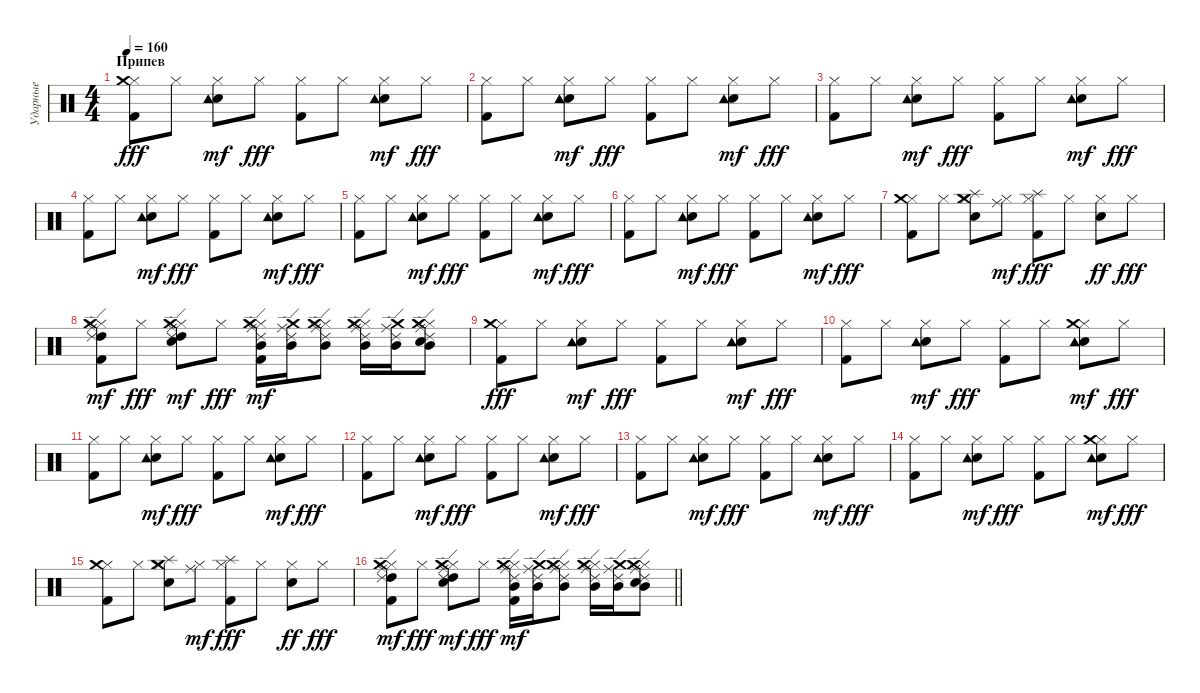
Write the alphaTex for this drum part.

\track ("Ударные" "Ударные") {instrument percussion}
\staff {score}
\articulation defaults
\ts (4 4)
\section ("" "Припев")
\tempo 160
\clef neutral
\ks c
("Hi-Hat (closed)" "Kick (hit) 2" "Crash medium (hit)").8{dy fff} "Hi-Hat (closed)".8 ("Hi-Hat (closed)" "Snare (hit) 2" "Tambourine (hit)").8{dy mf} "Hi-Hat (closed)".8{dy fff} ("Hi-Hat (closed)" "Kick (hit) 2").8 "Hi-Hat (closed)".8 ("Hi-Hat (closed)" "Snare (hit) 2" "Tambourine (hit)").8{dy mf} "Hi-Hat (closed)".8{dy fff} |
("Hi-Hat (closed)" "Kick (hit) 2").8 "Hi-Hat (closed)".8 ("Hi-Hat (closed)" "Snare (hit) 2" "Tambourine (hit)").8{dy mf} "Hi-Hat (closed)".8{dy fff} ("Hi-Hat (closed)" "Kick (hit) 2").8 "Hi-Hat (closed)".8 ("Hi-Hat (closed)" "Snare (hit) 2" "Tambourine (hit)").8{dy mf} "Hi-Hat (closed)".8{dy fff} |
("Hi-Hat (closed)" "Kick (hit) 2").8 "Hi-Hat (closed)".8 ("Hi-Hat (closed)" "Snare (hit) 2" "Tambourine (hit)").8{dy mf} "Hi-Hat (closed)".8{dy fff} ("Hi-Hat (closed)" "Kick (hit) 2").8 "Hi-Hat (closed)".8 ("Hi-Hat (closed)" "Snare (hit) 2" "Tambourine (hit)").8{dy mf} "Hi-Hat (closed)".8{dy fff} |
("Hi-Hat (closed)" "Kick (hit) 2").8 "Hi-Hat (closed)".8 ("Hi-Hat (closed)" "Snare (hit) 2" "Tambourine (hit)").8{dy mf} "Hi-Hat (closed)".8{dy fff} ("Hi-Hat (closed)" "Kick (hit) 2").8 "Hi-Hat (closed)".8 ("Hi-Hat (closed)" "Snare (hit) 2" "Tambourine (hit)").8{dy mf} "Hi-Hat (closed)".8{dy fff} |
("Hi-Hat (closed)" "Kick (hit) 2").8 "Hi-Hat (closed)".8 ("Hi-Hat (closed)" "Snare (hit) 2" "Tambourine (hit)").8{dy mf} "Hi-Hat (closed)".8{dy fff} ("Hi-Hat (closed)" "Kick (hit) 2").8 "Hi-Hat (closed)".8 ("Hi-Hat (closed)" "Snare (hit) 2" "Tambourine (hit)").8{dy mf} "Hi-Hat (closed)".8{dy fff} |
("Hi-Hat (closed)" "Kick (hit) 2").8 "Hi-Hat (closed)".8 ("Hi-Hat (closed)" "Snare (hit) 2" "Tambourine (hit)").8{dy mf} "Hi-Hat (closed)".8{dy fff} ("Hi-Hat (closed)" "Kick (hit) 2").8 "Hi-Hat (closed)".8 ("Hi-Hat (closed)" "Snare (hit) 2" "Tambourine (hit)").8{dy mf} "Hi-Hat (closed)".8{dy fff} |
("Hi-Hat (closed)" "Kick (hit) 2" "Crash medium (hit)").8 "Hi-Hat (closed)".8 ("Hi-Hat (closed)" "Snare (hit) 2" "Crash medium (hit)" "Splash (hit)").8 ("Hi-Hat (closed)" "Ride (middle)").8{dy mf} ("Hi-Hat (closed)" "Kick (hit) 2" "Splash (hit)").8{dy fff} "Hi-Hat (closed)".8 ("Hi-Hat (closed)" "Snare (hit) 2").8{dy ff} "Hi-Hat (closed)".8{dy fff} |
("Hi-Hat (closed)" "Kick (hit) 2" "High Tom (hit)" "Ride (middle)" "Ride (edge) 2" "Crash medium (hit)").8{dy mf} "Hi-Hat (closed)".8{dy fff} ("Hi-Hat (closed)" "Snare (hit) 2" "High Tom (hit)" "Ride (middle)" "Ride (edge) 2" "Crash medium (hit)").8{dy mf} "Hi-Hat (closed)".8{dy fff} ("Hi-Hat (closed)" "Kick (hit) 2" "Mid Tom (hit)" "Ride (middle)" "Ride (edge) 2" "Crash medium (hit)").16{dy mf} ("Mid Tom (hit)" "Ride (middle)" "Ride (edge) 2" "Crash medium (hit)").16 ("Hi-Hat (closed)" "Mid Tom (hit)" "Ride (middle)" "Ride (edge) 2" "Crash medium (hit)").8 ("Hi-Hat (closed)" "Mid Tom (hit)" "Ride (middle)" "Ride (edge) 2" "Crash medium (hit)").16 ("Mid Tom (hit)" "Ride (middle)" "Ride (edge) 2" "Crash medium (hit)").16 ("Hi-Hat (closed)" "Snare (hit) 2" "Mid Tom (hit)" "Ride (middle)" "Ride (edge) 2" "Crash medium (hit)").8 |
("Hi-Hat (closed)" "Kick (hit) 2" "Crash medium (hit)").8{dy fff} "Hi-Hat (closed)".8 ("Hi-Hat (closed)" "Snare (hit) 2" "Tambourine (hit)").8{dy mf} "Hi-Hat (closed)".8{dy fff} ("Hi-Hat (closed)" "Kick (hit) 2").8 "Hi-Hat (closed)".8 ("Hi-Hat (closed)" "Snare (hit) 2" "Tambourine (hit)").8{dy mf} "Hi-Hat (closed)".8{dy fff} |
("Hi-Hat (closed)" "Kick (hit) 2").8 "Hi-Hat (closed)".8 ("Hi-Hat (closed)" "Snare (hit) 2" "Tambourine (hit)").8{dy mf} "Hi-Hat (closed)".8{dy fff} ("Hi-Hat (closed)" "Kick (hit) 2").8 "Hi-Hat (closed)".8 ("Hi-Hat (closed)" "Snare (hit) 2" "Tambourine (hit)" "Crash medium (hit)").8{dy mf} "Hi-Hat (closed)".8{dy fff} |
("Hi-Hat (closed)" "Kick (hit) 2").8 "Hi-Hat (closed)".8 ("Hi-Hat (closed)" "Snare (hit) 2" "Tambourine (hit)").8{dy mf} "Hi-Hat (closed)".8{dy fff} ("Hi-Hat (closed)" "Kick (hit) 2").8 "Hi-Hat (closed)".8 ("Hi-Hat (closed)" "Snare (hit) 2" "Tambourine (hit)").8{dy mf} "Hi-Hat (closed)".8{dy fff} |
("Hi-Hat (closed)" "Kick (hit) 2").8 "Hi-Hat (closed)".8 ("Hi-Hat (closed)" "Snare (hit) 2" "Tambourine (hit)").8{dy mf} "Hi-Hat (closed)".8{dy fff} ("Hi-Hat (closed)" "Kick (hit) 2").8 "Hi-Hat (closed)".8 ("Hi-Hat (closed)" "Snare (hit) 2" "Tambourine (hit)").8{dy mf} "Hi-Hat (closed)".8{dy fff} |
("Hi-Hat (closed)" "Kick (hit) 2").8 "Hi-Hat (closed)".8 ("Hi-Hat (closed)" "Snare (hit) 2" "Tambourine (hit)").8{dy mf} "Hi-Hat (closed)".8{dy fff} ("Hi-Hat (closed)" "Kick (hit) 2").8 "Hi-Hat (closed)".8 ("Hi-Hat (closed)" "Snare (hit) 2" "Tambourine (hit)").8{dy mf} "Hi-Hat (closed)".8{dy fff} |
("Hi-Hat (closed)" "Kick (hit) 2").8 "Hi-Hat (closed)".8 ("Hi-Hat (closed)" "Snare (hit) 2" "Tambourine (hit)").8{dy mf} "Hi-Hat (closed)".8{dy fff} ("Hi-Hat (closed)" "Kick (hit) 2").8 "Hi-Hat (closed)".8 ("Hi-Hat (closed)" "Snare (hit) 2" "Tambourine (hit)" "Crash medium (hit)").8{dy mf} "Hi-Hat (closed)".8{dy fff} |
("Hi-Hat (closed)" "Kick (hit) 2" "Crash medium (hit)").8 "Hi-Hat (closed)".8 ("Hi-Hat (closed)" "Snare (hit) 2" "Crash medium (hit)" "Splash (hit)").8 ("Hi-Hat (closed)" "Ride (middle)").8{dy mf} ("Hi-Hat (closed)" "Kick (hit) 2" "Splash (hit)").8{dy fff} "Hi-Hat (closed)".8 ("Hi-Hat (closed)" "Snare (hit) 2").8{dy ff} "Hi-Hat (closed)".8{dy fff} |
\barLineRight lightlight
("Hi-Hat (closed)" "Kick (hit) 2" "High Tom (hit)" "Ride (middle)" "Ride (edge) 2" "Crash medium (hit)").8{dy mf} "Hi-Hat (closed)".8{dy fff} ("Hi-Hat (closed)" "Snare (hit) 2" "High Tom (hit)" "Ride (middle)" "Ride (edge) 2" "Crash medium (hit)").8{dy mf} "Hi-Hat (closed)".8{dy fff} ("Hi-Hat (closed)" "Kick (hit) 2" "Mid Tom (hit)" "Ride (middle)" "Ride (edge) 2" "Crash medium (hit)").16{dy mf} ("Mid Tom (hit)" "Ride (middle)" "Ride (edge) 2" "Crash medium (hit)").16 ("Hi-Hat (closed)" "Mid Tom (hit)" "Ride (middle)" "Ride (edge) 2" "Crash medium (hit)").8 ("Hi-Hat (closed)" "Mid Tom (hit)" "Ride (middle)" "Ride (edge) 2" "Crash medium (hit)").16 ("Mid Tom (hit)" "Ride (middle)" "Ride (edge) 2" "Crash medium (hit)").16 ("Hi-Hat (closed)" "Snare (hit) 2" "Mid Tom (hit)" "Ride (middle)" "Ride (edge) 2" "Crash medium (hit)").8
